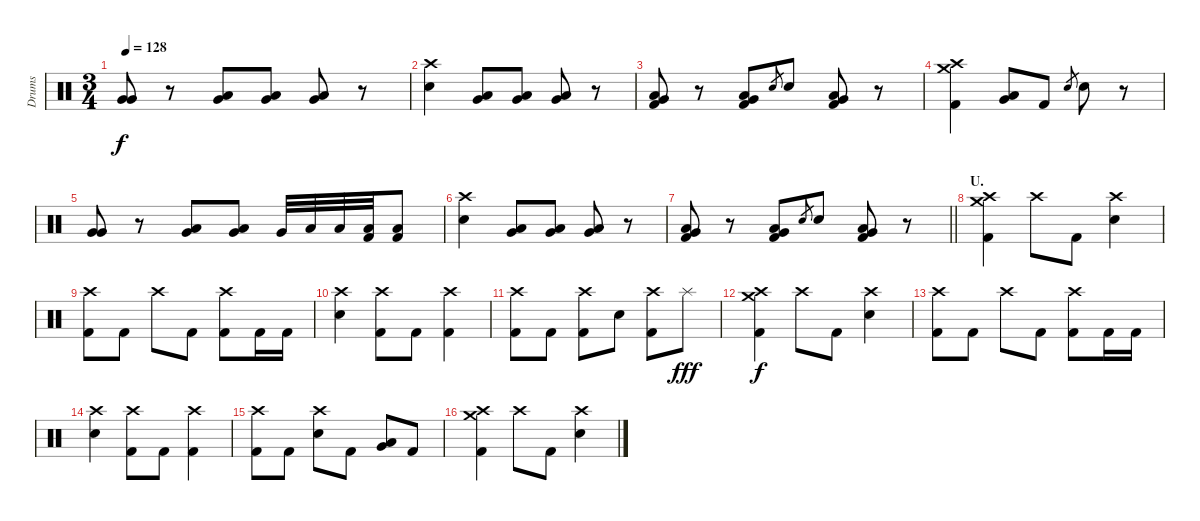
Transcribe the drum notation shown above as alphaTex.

\track ("Drums" "Drums") {instrument percussion}
\staff {score}
\articulation defaults
\ts (3 4)
\tempo 128
\clef neutral
\ks c
("Very Low Tom (hit)" "Very Low Tom (hit)").8{bu 120 dy f} r.8 ("Low Tom (hit)" "Very Low Tom (hit)").8 ("Very Low Tom (hit)" "Low Floor Tom (hit)").8 ("Very Low Tom (hit)" "Low Floor Tom (hit)").8 r.8 |
("Crash high (hit)" "Electric Snare (hit)").4 ("Low Tom (hit)" "Very Low Tom (hit)").8 ("Very Low Tom (hit)" "Low Floor Tom (hit)").8 ("Very Low Tom (hit)" "Low Floor Tom (hit)").8 r.8 |
("Very Low Tom (hit)" "Low Floor Tom (hit)" "Kick (hit) 2").8 r.8 ("Very Low Tom (hit)" "Low Floor Tom (hit)" "Kick (hit) 2").8 "Electric Snare (hit)".8{gr} "Electric Snare (hit)".8 ("Very Low Tom (hit)" "Low Floor Tom (hit)" "Kick (hit) 2").8 r.8 |
("Crash medium (hit)" "Crash high (hit)" "Kick (hit) 2").4 ("Very Low Tom (hit)" "Low Floor Tom (hit)").8{bu 120} "Kick (hit) 2".8 "Electric Snare (hit)".8{gr} "Electric Snare (hit)".8 r.8 |
("Very Low Tom (hit)" "Very Low Tom (hit)").8{bu 120} r.8 ("Low Tom (hit)" "Very Low Tom (hit)").8 ("Very Low Tom (hit)" "Low Floor Tom (hit)").8 "Very Low Tom (hit)".32 "Low Floor Tom (hit)".32 "Low Floor Tom (hit)".32 ("Low Floor Tom (hit)" "Kick (hit) 2").32 ("Low Floor Tom (hit)" "Kick (hit) 2").8 |
("Crash high (hit)" "Electric Snare (hit)").4 ("Low Tom (hit)" "Very Low Tom (hit)").8 ("Very Low Tom (hit)" "Low Floor Tom (hit)").8 ("Very Low Tom (hit)" "Low Floor Tom (hit)").8 r.8 |
\barLineRight lightlight
("Very Low Tom (hit)" "Low Floor Tom (hit)" "Kick (hit) 2").8 r.8 ("Very Low Tom (hit)" "Low Floor Tom (hit)" "Kick (hit) 2").8 "Electric Snare (hit)".8{gr} "Electric Snare (hit)".8 ("Very Low Tom (hit)" "Low Floor Tom (hit)" "Kick (hit) 2").8 r.8 |
\section ("" "U.")
("Crash medium (hit)" "Crash high (hit)" "Kick (hit) 2").4{volume 12} "Crash high (hit)".8 "Kick (hit) 2".8 ("Crash high (hit)" "Electric Snare (hit)").4 |
("Crash high (hit)" "Kick (hit) 2").8 "Kick (hit) 2".8 "Crash high (hit)".8 "Kick (hit) 2".8 ("Crash high (hit)" "Kick (hit) 2").8 "Kick (hit) 2".16 "Kick (hit) 2".16 |
("Crash high (hit)" "Electric Snare (hit)").4 ("Crash high (hit)" "Kick (hit) 2").8 "Kick (hit) 2".8 ("Crash high (hit)" "Kick (hit) 2").4 |
("Crash high (hit)" "Kick (hit) 2").8 "Kick (hit) 2".8 ("Crash high (hit)" "Kick (hit) 2").8 "Electric Snare (hit)".8 ("Crash high (hit)" "Kick (hit) 2").8 "Splash (hit)".8{dy fff} |
("Crash medium (hit)" "Crash high (hit)" "Kick (hit) 2").4{dy f volume 10} "Crash high (hit)".8 "Kick (hit) 2".8 ("Crash high (hit)" "Electric Snare (hit)").4 |
("Crash high (hit)" "Kick (hit) 2").8 "Kick (hit) 2".8 "Crash high (hit)".8 "Kick (hit) 2".8 ("Crash high (hit)" "Kick (hit) 2").8 "Kick (hit) 2".16 "Kick (hit) 2".16 |
("Crash high (hit)" "Electric Snare (hit)").4 ("Crash high (hit)" "Kick (hit) 2").8 "Kick (hit) 2".8 ("Crash high (hit)" "Kick (hit) 2").4 |
("Crash high (hit)" "Kick (hit) 2").8 "Kick (hit) 2".8 ("Crash high (hit)" "Electric Snare (hit)").8 "Kick (hit) 2".8 ("Low Tom (hit)" "Very Low Tom (hit)").8{bu 120} "Kick (hit) 2".8 |
("Crash medium (hit)" "Crash high (hit)" "Kick (hit) 2").4{volume 6} "Crash high (hit)".8 "Kick (hit) 2".8 ("Crash high (hit)" "Electric Snare (hit)").4
